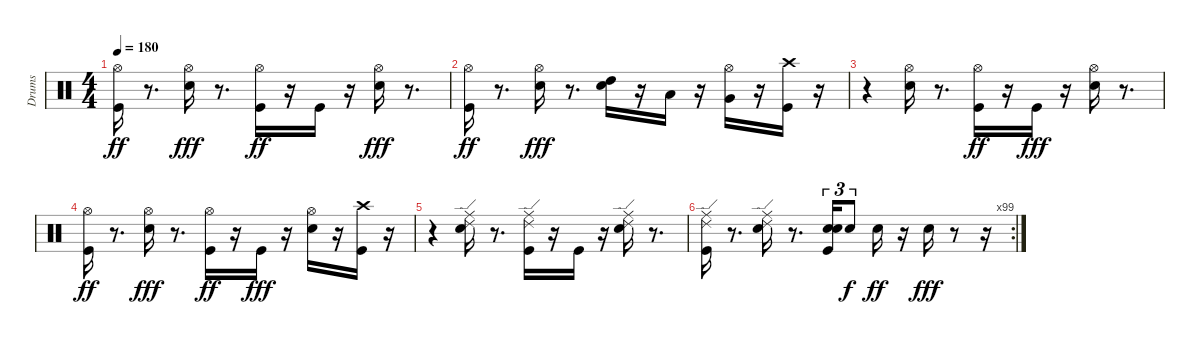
\track ("Drums" "Drums") {instrument percussion}
\staff {score}
\articulation defaults
\ts (4 4)
\tempo 180
\clef neutral
\ks c
("Kick (hit)" "Hi-Hat (open)").16{dy ff} r.8{d} ("Electric Snare (hit)" "Hi-Hat (open)").16{dy fff} r.8{d} ("Kick (hit)" "Hi-Hat (open)").16{dy ff} r.16 "Kick (hit)".16 r.16 ("Electric Snare (hit)" "Hi-Hat (open)").16{dy fff} r.8{d} |
("Kick (hit)" "Hi-Hat (open)").16{dy ff} r.8{d} ("Electric Snare (hit)" "Hi-Hat (open)").16{dy fff} r.8{d} ("Electric Snare (hit)" "High Tom (hit)").16 r.16 "Low Tom (hit)".16 r.16 ("Hi-Hat (open)" "Very Low Tom (hit)").16 r.16 ("Kick (hit)" "Crash high (hit)").16 r.16 |
r.4 ("Electric Snare (hit)" "Hi-Hat (open)").16 r.8{d} ("Kick (hit)" "Hi-Hat (open)").16{dy ff} r.16 "Kick (hit)".16{dy fff} r.16 ("Hi-Hat (open)" "Electric Snare (hit)").16 r.8{d} |
("Kick (hit)" "Hi-Hat (open)").16{dy ff} r.8{d} ("Electric Snare (hit)" "Hi-Hat (open)").16{dy fff} r.8{d} ("Kick (hit)" "Hi-Hat (open)").16{dy ff} r.16 "Kick (hit)".16{dy fff} r.16 ("Hi-Hat (open)" "Electric Snare (hit)").16 r.16 ("Kick (hit)" "Crash high (hit)").16 r.16 |
r.4 ("Ride (edge) 2" "Ride (middle)" "Electric Snare (hit)").16 r.8{d} ("Ride (middle)" "Ride (edge) 2" "Kick (hit)").16 r.16 "Kick (hit)".16 r.16 ("Ride (edge) 2" "Ride (middle)" "Electric Snare (hit)").16 r.8{d} |
\rc 99
("Ride (middle)" "Ride (edge) 2" "Kick (hit)").16 r.8{d} ("Ride (middle)" "Ride (edge) 2" "Electric Snare (hit)").16 r.8{d} ("Snare (hit) 2" "Kick (hit)" "Electric Snare (hit)").16{tu (3 2)} "Electric Snare (hit)".8{tu (3 2) dy f} "Electric Snare (hit)".16{dy ff} r.16 "Electric Snare (hit)".16{dy fff} r.8 r.16
